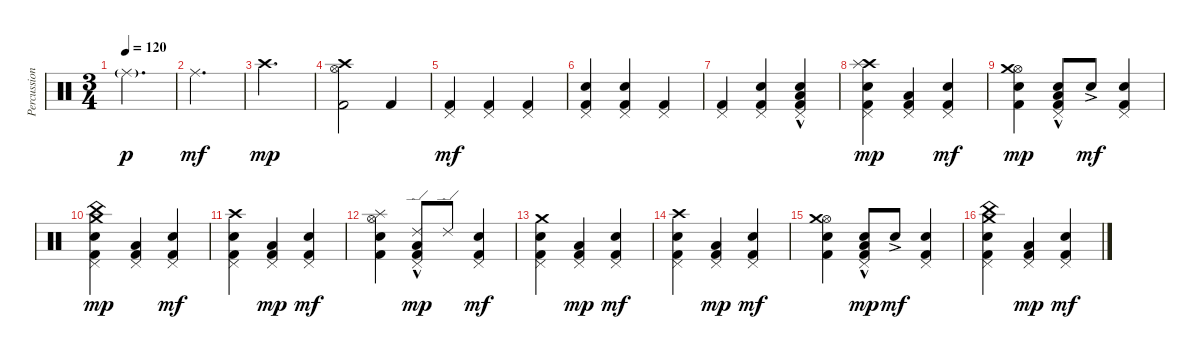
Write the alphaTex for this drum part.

\track ("Percussion" "Percussion") {instrument percussion}
\staff {score}
\articulation defaults
\ts (3 4)
\tempo 120
\clef neutral
\ks c "Ride (middle)"{g}.2{d dy p}
|
"Ride (middle)".2{d dy mf} |
"Crash high (hit)".2{d dy mp} |
("Kick (hit) 2" "Hi-Hat (open)" "Crash high (hit)").2 "Kick (hit) 2".4 |
("Kick (hit) 2" "Pedal Hi-Hat (hit)").4{dy mf} ("Kick (hit) 2" "Pedal Hi-Hat (hit)").4 ("Kick (hit) 2" "Pedal Hi-Hat (hit)").4 |
("Snare (hit) 2" "Kick (hit) 2" "Pedal Hi-Hat (hit)").4 ("Snare (hit) 2" "Kick (hit) 2" "Pedal Hi-Hat (hit)").4 ("Kick (hit) 2" "Pedal Hi-Hat (hit)").4 |
("Kick (hit) 2" "Pedal Hi-Hat (hit)").4 ("Snare (hit) 2" "Kick (hit) 2" "Pedal Hi-Hat (hit)").4 ("Snare (hit) 2"{hac} "Kick (hit) 2" "Pedal Hi-Hat (hit)" "Low Floor Tom (hit)").4 |
("Snare (hit) 2" "Kick (hit) 2" "Crash high (hit)" "Pedal Hi-Hat (hit)" "Splash (hit)").4{dy mp} ("Kick (hit) 2" "Pedal Hi-Hat (hit)" "Low Tom (hit)").4 ("Snare (hit) 2" "Kick (hit) 2" "Pedal Hi-Hat (hit)").4{dy mf} |
("Snare (hit) 2" "Kick (hit) 2" "Hi-Hat (open)" "Crash medium (hit)").4{dy mp} ("Snare (hit) 2"{hac} "Kick (hit) 2" "Pedal Hi-Hat (hit)" "Low Tom (hit)").8 "Snare (hit) 2"{ac}.8{dy mf} ("Snare (hit) 2" "Kick (hit) 2" "Pedal Hi-Hat (hit)").4 |
("Snare (hit) 2" "Kick (hit) 2" "Crash medium (hit)" "Pedal Hi-Hat (hit)" "China (hit)").4{dy mp} ("Kick (hit) 2" "Pedal Hi-Hat (hit)" "Low Tom (hit)").4 ("Snare (hit) 2" "Kick (hit) 2" "Pedal Hi-Hat (hit)").4{dy mf} |
("Snare (hit) 2" "Kick (hit) 2" "Crash high (hit)" "Pedal Hi-Hat (hit)").4 ("Kick (hit) 2" "Pedal Hi-Hat (hit)" "Low Tom (hit)").4{dy mp} ("Snare (hit) 2" "Kick (hit) 2" "Pedal Hi-Hat (hit)").4{dy mf} |
("Snare (hit) 2" "Kick (hit) 2" "Hi-Hat (open)" "Splash (hit)").4 ("Ride (edge) 2"{hac} "Kick (hit) 2" "Pedal Hi-Hat (hit)" "Low Tom (hit)").8{dy mp} "Ride (edge) 2".8 ("Snare (hit) 2" "Kick (hit) 2" "Pedal Hi-Hat (hit)").4{dy mf} |
("Snare (hit) 2" "Kick (hit) 2" "Crash medium (hit)" "Pedal Hi-Hat (hit)").4 ("Kick (hit) 2" "Pedal Hi-Hat (hit)" "Low Tom (hit)").4{dy mp} ("Snare (hit) 2" "Kick (hit) 2" "Pedal Hi-Hat (hit)").4{dy mf} |
("Snare (hit) 2" "Kick (hit) 2" "Crash high (hit)" "Pedal Hi-Hat (hit)").4 ("Kick (hit) 2" "Pedal Hi-Hat (hit)" "Low Tom (hit)").4{dy mp} ("Snare (hit) 2" "Kick (hit) 2" "Pedal Hi-Hat (hit)").4{dy mf} |
("Snare (hit) 2" "Kick (hit) 2" "Hi-Hat (open)" "Crash medium (hit)").4 ("Snare (hit) 2"{hac} "Kick (hit) 2" "Pedal Hi-Hat (hit)" "Low Tom (hit)").8{dy mp} "Snare (hit) 2"{ac}.8{dy mf} ("Snare (hit) 2" "Kick (hit) 2" "Pedal Hi-Hat (hit)").4 |
("Snare (hit) 2" "Kick (hit) 2" "Crash medium (hit)" "Pedal Hi-Hat (hit)" "China (hit)").4 ("Kick (hit) 2" "Pedal Hi-Hat (hit)" "Low Tom (hit)").4{dy mp} ("Snare (hit) 2" "Kick (hit) 2" "Pedal Hi-Hat (hit)").4{dy mf}
